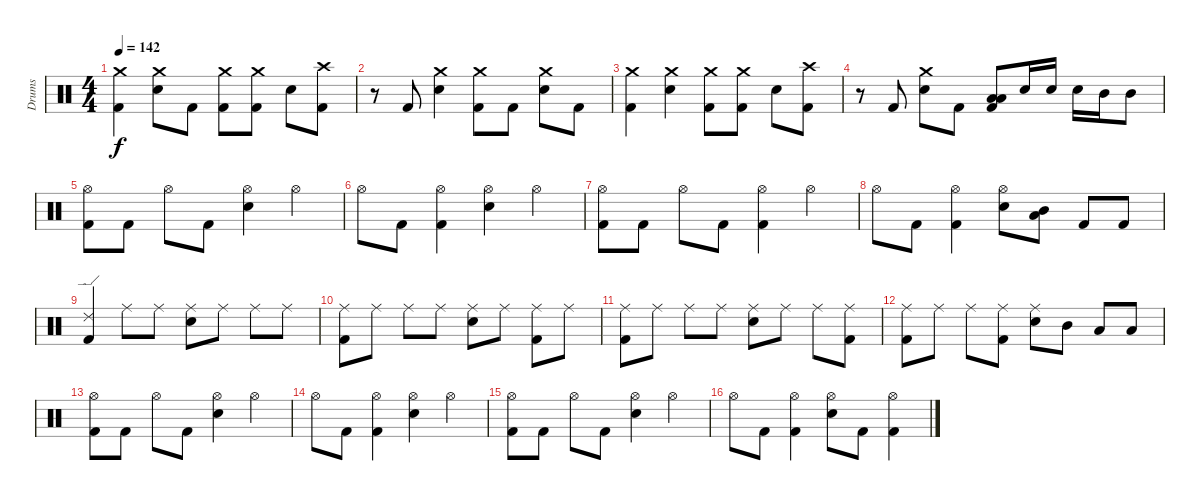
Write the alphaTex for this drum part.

\track ("Drums" "Drums") {instrument percussion}
\staff {score}
\articulation defaults
\ts (4 4)
\tempo 142
\clef neutral
\ks c
("Crash medium (hit)" "Kick (hit) 2").4{dy f} ("Crash medium (hit)" "Electric Snare (hit)").8 "Kick (hit) 2".8 ("Crash medium (hit)" "Kick (hit) 2").8 ("Crash medium (hit)" "Kick (hit) 2").8 "Electric Snare (hit)".8 ("Crash high (hit)" "Kick (hit) 2").8 |
r.8 "Kick (hit) 2".8 ("Crash medium (hit)" "Electric Snare (hit)").4 ("Crash medium (hit)" "Kick (hit) 2").8 "Kick (hit) 2".8 ("Crash medium (hit)" "Electric Snare (hit)").8 "Kick (hit) 2".8 |
("Crash medium (hit)" "Kick (hit) 2").4 ("Crash medium (hit)" "Electric Snare (hit)").4 ("Crash medium (hit)" "Kick (hit) 2").8 ("Crash medium (hit)" "Kick (hit) 2").8 "Electric Snare (hit)".8 ("Crash high (hit)" "Kick (hit) 2").8 |
r.8 "Kick (hit) 2".8 ("Crash medium (hit)" "Electric Snare (hit)").8 "Kick (hit) 2".8 ("Low Tom (hit)" "Low Floor Tom (hit)" "Kick (hit) 2").8 "Electric Snare (hit)".16 "Electric Snare (hit)".16 "Electric Snare (hit)".16 "Mid Tom (hit)".16 "Mid Tom (hit)".8 |
("Hi-Hat (open)" "Kick (hit) 2").8 "Kick (hit) 2".8 "Hi-Hat (open)".8 "Kick (hit) 2".8 ("Hi-Hat (open)" "Electric Snare (hit)").4 "Hi-Hat (open)".4 |
"Hi-Hat (open)".8 "Kick (hit) 2".8 ("Hi-Hat (open)" "Kick (hit) 2").4 ("Hi-Hat (open)" "Electric Snare (hit)").4 "Hi-Hat (open)".4 |
("Hi-Hat (open)" "Kick (hit) 2").8 "Kick (hit) 2".8 "Hi-Hat (open)".8 "Kick (hit) 2".8 ("Hi-Hat (open)" "Kick (hit) 2").4 "Hi-Hat (open)".4 |
"Hi-Hat (open)".8 "Kick (hit) 2".8 ("Hi-Hat (open)" "Kick (hit) 2").4 ("Hi-Hat (open)" "Electric Snare (hit)").8 ("Mid Tom (hit)" "Low Floor Tom (hit)").8 "Kick (hit) 2".8 "Kick (hit) 2".8 |
("Ride (edge) 2" "Kick (hit) 2").4 "Ride (middle)".8 "Ride (middle)".8 ("Ride (middle)" "Electric Snare (hit)").8 "Ride (middle)".8 "Ride (middle)".8 "Ride (middle)".8 |
("Ride (middle)" "Kick (hit) 2").8 "Ride (middle)".8 "Ride (middle)".8 "Ride (middle)".8 ("Ride (middle)" "Electric Snare (hit)").8 "Ride (middle)".8 ("Ride (middle)" "Kick (hit) 2").8 "Ride (middle)".8 |
("Ride (middle)" "Kick (hit) 2").8 "Ride (middle)".8 "Ride (middle)".8 "Ride (middle)".8 ("Ride (middle)" "Electric Snare (hit)").8 "Ride (middle)".8 "Ride (middle)".8 ("Ride (middle)" "Kick (hit) 2").8 |
("Ride (middle)" "Kick (hit) 2").8 "Ride (middle)".8 "Ride (middle)".8 ("Ride (middle)" "Kick (hit) 2").8 ("Ride (middle)" "Electric Snare (hit)").8 "Mid Tom (hit)".8 "Low Tom (hit)".8 "Low Tom (hit)".8 |
("Hi-Hat (open)" "Kick (hit) 2").8 "Kick (hit) 2".8 "Hi-Hat (open)".8 "Kick (hit) 2".8 ("Hi-Hat (open)" "Electric Snare (hit)").4 "Hi-Hat (open)".4 |
"Hi-Hat (open)".8 "Kick (hit) 2".8 ("Hi-Hat (open)" "Kick (hit) 2").4 ("Hi-Hat (open)" "Electric Snare (hit)").4 "Hi-Hat (open)".4 |
("Hi-Hat (open)" "Kick (hit) 2").8 "Kick (hit) 2".8 "Hi-Hat (open)".8 "Kick (hit) 2".8 ("Hi-Hat (open)" "Electric Snare (hit)").4 "Hi-Hat (open)".4 |
"Hi-Hat (open)".8 "Kick (hit) 2".8 ("Hi-Hat (open)" "Kick (hit) 2").4 ("Hi-Hat (open)" "Electric Snare (hit)").8 "Kick (hit) 2".8 ("Hi-Hat (open)" "Kick (hit) 2").4
